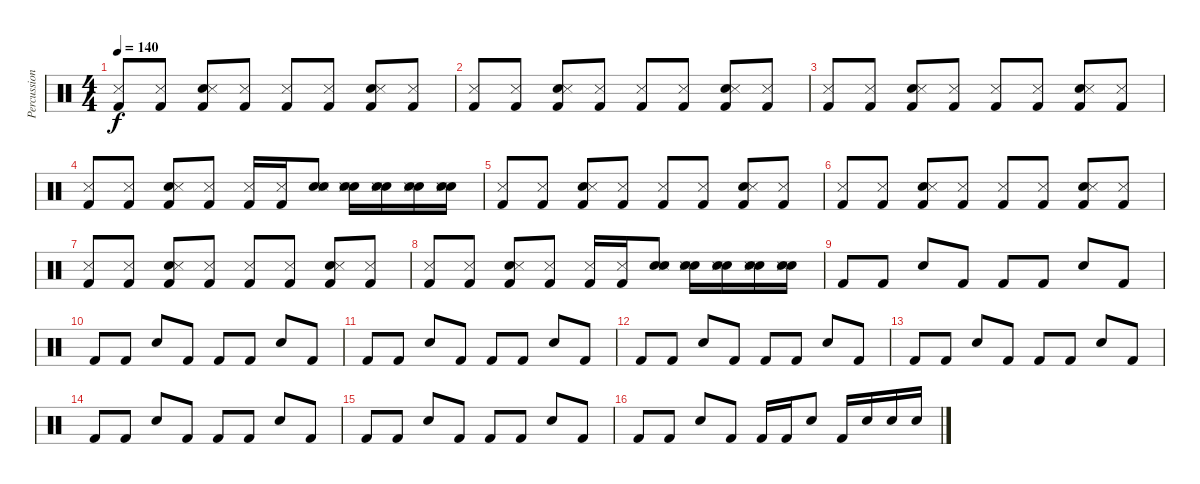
\track ("Percussion" "Percussion") {instrument percussion}
\staff {score}
\articulation defaults
\ts (4 4)
\tempo 140
\clef neutral
\ks c
("Kick (hit) 2" "Snare (side stick) 3").8{dy f} ("Kick (hit) 2" "Snare (side stick) 3").8 ("Kick (hit) 2" "Snare (hit) 2" "Snare (side stick) 3").8 ("Kick (hit) 2" "Snare (side stick) 3").8 ("Kick (hit) 2" "Snare (side stick) 3").8 ("Kick (hit) 2" "Snare (side stick) 3").8 ("Kick (hit) 2" "Snare (hit) 2" "Snare (side stick) 3").8 ("Kick (hit) 2" "Snare (side stick) 3").8 |
("Kick (hit) 2" "Snare (side stick) 3").8 ("Kick (hit) 2" "Snare (side stick) 3").8 ("Kick (hit) 2" "Snare (hit) 2" "Snare (side stick) 3").8 ("Kick (hit) 2" "Snare (side stick) 3").8 ("Kick (hit) 2" "Snare (side stick) 3").8 ("Kick (hit) 2" "Snare (side stick) 3").8 ("Kick (hit) 2" "Snare (hit) 2" "Snare (side stick) 3").8 ("Kick (hit) 2" "Snare (side stick) 3").8 |
("Kick (hit) 2" "Snare (side stick) 3").8 ("Kick (hit) 2" "Snare (side stick) 3").8 ("Kick (hit) 2" "Snare (hit) 2" "Snare (side stick) 3").8 ("Kick (hit) 2" "Snare (side stick) 3").8 ("Kick (hit) 2" "Snare (side stick) 3").8 ("Kick (hit) 2" "Snare (side stick) 3").8 ("Kick (hit) 2" "Snare (hit) 2" "Snare (side stick) 3").8 ("Kick (hit) 2" "Snare (side stick) 3").8 |
("Kick (hit) 2" "Snare (side stick) 3").8 ("Kick (hit) 2" "Snare (side stick) 3").8 ("Kick (hit) 2" "Snare (hit) 2" "Snare (side stick) 3").8 ("Kick (hit) 2" "Snare (side stick) 3").8 ("Kick (hit) 2" "Snare (side stick) 3").16 ("Kick (hit) 2" "Snare (side stick) 3").16 ("Snare (hit) 2" "Snare (hit) 2" "Snare (side stick) 3").8 ("Snare (hit) 2" "Snare (hit) 2" "Snare (side stick) 3").16 ("Snare (hit) 2" "Snare (hit) 2" "Snare (side stick) 3").16 ("Snare (hit) 2" "Snare (hit) 2" "Snare (side stick) 3").16 ("Snare (hit) 2" "Snare (hit) 2" "Snare (side stick) 3").16 |
("Kick (hit) 2" "Snare (side stick) 3").8 ("Kick (hit) 2" "Snare (side stick) 3").8 ("Kick (hit) 2" "Snare (hit) 2" "Snare (side stick) 3").8 ("Kick (hit) 2" "Snare (side stick) 3").8 ("Kick (hit) 2" "Snare (side stick) 3").8 ("Kick (hit) 2" "Snare (side stick) 3").8 ("Kick (hit) 2" "Snare (hit) 2" "Snare (side stick) 3").8 ("Kick (hit) 2" "Snare (side stick) 3").8 |
("Kick (hit) 2" "Snare (side stick) 3").8 ("Kick (hit) 2" "Snare (side stick) 3").8 ("Kick (hit) 2" "Snare (hit) 2" "Snare (side stick) 3").8 ("Kick (hit) 2" "Snare (side stick) 3").8 ("Kick (hit) 2" "Snare (side stick) 3").8 ("Kick (hit) 2" "Snare (side stick) 3").8 ("Kick (hit) 2" "Snare (hit) 2" "Snare (side stick) 3").8 ("Kick (hit) 2" "Snare (side stick) 3").8 |
("Kick (hit) 2" "Snare (side stick) 3").8 ("Kick (hit) 2" "Snare (side stick) 3").8 ("Kick (hit) 2" "Snare (hit) 2" "Snare (side stick) 3").8 ("Kick (hit) 2" "Snare (side stick) 3").8 ("Kick (hit) 2" "Snare (side stick) 3").8 ("Kick (hit) 2" "Snare (side stick) 3").8 ("Kick (hit) 2" "Snare (hit) 2" "Snare (side stick) 3").8 ("Kick (hit) 2" "Snare (side stick) 3").8 |
("Kick (hit) 2" "Snare (side stick) 3").8 ("Kick (hit) 2" "Snare (side stick) 3").8 ("Kick (hit) 2" "Snare (hit) 2" "Snare (side stick) 3").8 ("Kick (hit) 2" "Snare (side stick) 3").8 ("Kick (hit) 2" "Snare (side stick) 3").16 ("Kick (hit) 2" "Snare (side stick) 3").16 ("Snare (hit) 2" "Snare (hit) 2" "Snare (side stick) 3").8 ("Snare (hit) 2" "Snare (hit) 2" "Snare (side stick) 3").16 ("Snare (hit) 2" "Snare (hit) 2" "Snare (side stick) 3").16 ("Snare (hit) 2" "Snare (hit) 2" "Snare (side stick) 3").16 ("Snare (hit) 2" "Snare (hit) 2" "Snare (side stick) 3").16 |
"Kick (hit) 2".8 "Kick (hit) 2".8 "Snare (hit) 2".8 "Kick (hit) 2".8 "Kick (hit) 2".8 "Kick (hit) 2".8 "Snare (hit) 2".8 "Kick (hit) 2".8 |
"Kick (hit) 2".8 "Kick (hit) 2".8 "Snare (hit) 2".8 "Kick (hit) 2".8 "Kick (hit) 2".8 "Kick (hit) 2".8 "Snare (hit) 2".8 "Kick (hit) 2".8 |
"Kick (hit) 2".8 "Kick (hit) 2".8 "Snare (hit) 2".8 "Kick (hit) 2".8 "Kick (hit) 2".8 "Kick (hit) 2".8 "Snare (hit) 2".8 "Kick (hit) 2".8 |
"Kick (hit) 2".8 "Kick (hit) 2".8 "Snare (hit) 2".8 "Kick (hit) 2".8 "Kick (hit) 2".8 "Kick (hit) 2".8 "Snare (hit) 2".8 "Kick (hit) 2".8 |
"Kick (hit) 2".8 "Kick (hit) 2".8 "Snare (hit) 2".8 "Kick (hit) 2".8 "Kick (hit) 2".8 "Kick (hit) 2".8 "Snare (hit) 2".8 "Kick (hit) 2".8 |
"Kick (hit) 2".8 "Kick (hit) 2".8 "Snare (hit) 2".8 "Kick (hit) 2".8 "Kick (hit) 2".8 "Kick (hit) 2".8 "Snare (hit) 2".8 "Kick (hit) 2".8 |
"Kick (hit) 2".8 "Kick (hit) 2".8 "Snare (hit) 2".8 "Kick (hit) 2".8 "Kick (hit) 2".8 "Kick (hit) 2".8 "Snare (hit) 2".8 "Kick (hit) 2".8 |
"Kick (hit) 2".8 "Kick (hit) 2".8 "Snare (hit) 2".8 "Kick (hit) 2".8 "Kick (hit) 2".16 "Kick (hit) 2".16 "Snare (hit) 2".8 "Kick (hit) 2".16 "Snare (hit) 2".16 "Snare (hit) 2".16 "Snare (hit) 2".16
